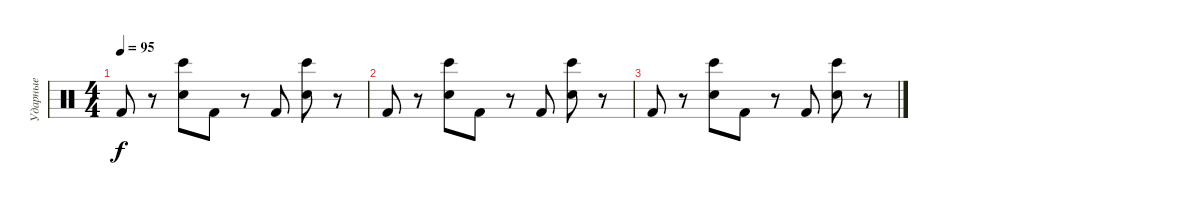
\track ("Ударные" "Ударные") {instrument percussion}
\staff {score}
\articulation defaults
\ts (4 4)
\tempo 95
\clef neutral
\ks c "Kick (hit) 2".8{dy f}
r.8 ("Electric Snare (hit)" "Bongo High (hit)").8 "Kick (hit) 2".8 r.8 "Kick (hit) 2".8 ("Electric Snare (hit)" "Bongo High (hit)").8 r.8 |
"Kick (hit) 2".8 r.8 ("Electric Snare (hit)" "Bongo High (hit)").8 "Kick (hit) 2".8 r.8 "Kick (hit) 2".8 ("Electric Snare (hit)" "Bongo High (hit)").8 r.8 |
"Kick (hit) 2".8 r.8 ("Electric Snare (hit)" "Bongo High (hit)").8 "Kick (hit) 2".8 r.8 "Kick (hit) 2".8 ("Electric Snare (hit)" "Bongo High (hit)").8 r.8
